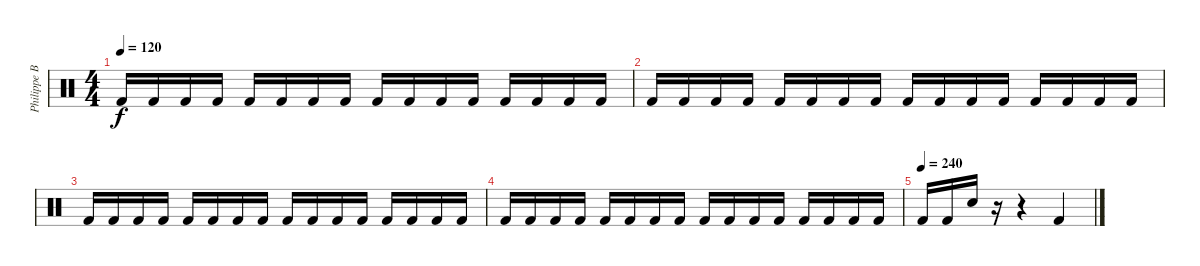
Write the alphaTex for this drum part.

\track ("Philippe Borda" "Philippe B") {instrument percussion}
\staff {score}
\articulation defaults
\ts (4 4)
\tempo 120
\clef neutral
\ks c "Kick (hit) 2".16{dy f} "Kick (hit) 2".16 "Kick (hit) 2".16 "Kick (hit) 2".16 "Kick (hit) 2".16 "Kick (hit) 2".16 "Kick (hit) 2".16 "Kick (hit) 2".16 "Kick (hit) 2".16 "Kick (hit) 2".16 "Kick (hit) 2".16 "Kick (hit) 2".16 "Kick (hit) 2".16 "Kick (hit) 2".16 "Kick (hit) 2".16 "Kick (hit) 2".16
|
"Kick (hit) 2".16 "Kick (hit) 2".16 "Kick (hit) 2".16 "Kick (hit) 2".16 "Kick (hit) 2".16 "Kick (hit) 2".16 "Kick (hit) 2".16 "Kick (hit) 2".16 "Kick (hit) 2".16 "Kick (hit) 2".16 "Kick (hit) 2".16 "Kick (hit) 2".16 "Kick (hit) 2".16 "Kick (hit) 2".16 "Kick (hit) 2".16 "Kick (hit) 2".16 |
"Kick (hit) 2".16 "Kick (hit) 2".16 "Kick (hit) 2".16 "Kick (hit) 2".16 "Kick (hit) 2".16 "Kick (hit) 2".16 "Kick (hit) 2".16 "Kick (hit) 2".16 "Kick (hit) 2".16 "Kick (hit) 2".16 "Kick (hit) 2".16 "Kick (hit) 2".16 "Kick (hit) 2".16 "Kick (hit) 2".16 "Kick (hit) 2".16 "Kick (hit) 2".16 |
"Kick (hit) 2".16 "Kick (hit) 2".16 "Kick (hit) 2".16 "Kick (hit) 2".16 "Kick (hit) 2".16 "Kick (hit) 2".16 "Kick (hit) 2".16 "Kick (hit) 2".16 "Kick (hit) 2".16 "Kick (hit) 2".16 "Kick (hit) 2".16 "Kick (hit) 2".16 "Kick (hit) 2".16 "Kick (hit) 2".16 "Kick (hit) 2".16 "Kick (hit) 2".16 |
\tempo (240)
"Kick (hit) 2".16 "Kick (hit) 2".16 "Snare (hit) 2".16 r.16 r.4 "Kick (hit) 2".4
